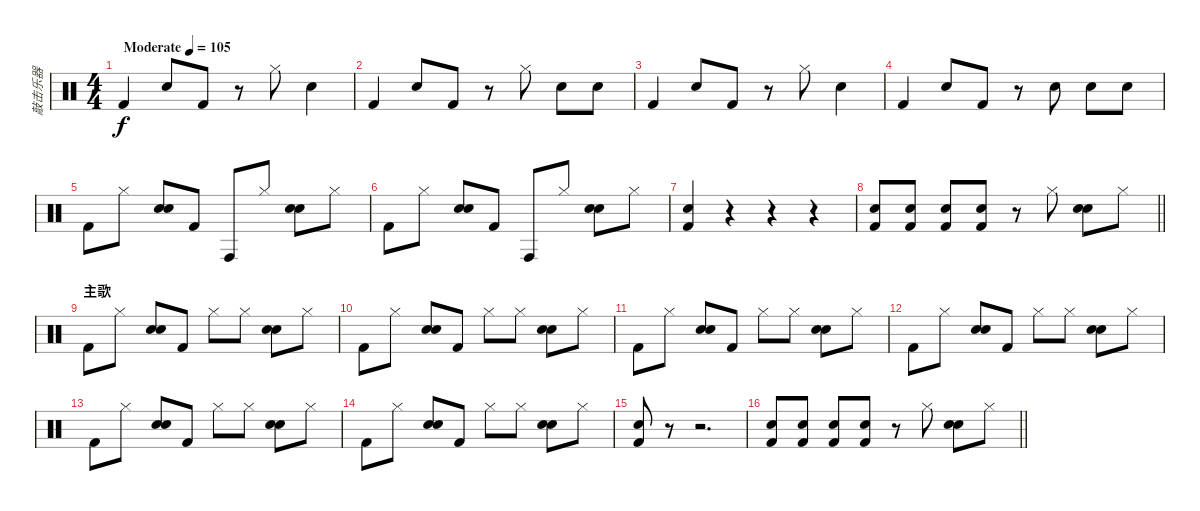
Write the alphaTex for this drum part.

\track ("敲击乐器" "敲击乐器") {instrument percussion}
\staff {score}
\articulation defaults
\ts (4 4)
\tempo (105 "Moderate")
\clef neutral
\ks c "Kick (hit) 2".4{dy f} "Hand Clap (hit)".8 "Kick (hit) 2".8
r.8 "Hi-Hat (closed)".8 "Hand Clap (hit)".4 |
"Kick (hit) 2".4 "Hand Clap (hit)".8 "Kick (hit) 2".8 r.8 "Hi-Hat (closed)".8 "Hand Clap (hit)".8 "Hand Clap (hit)".8 |
"Kick (hit) 2".4 "Hand Clap (hit)".8 "Kick (hit) 2".8 r.8 "Hi-Hat (closed)".8 "Hand Clap (hit)".4 |
"Kick (hit) 2".4 "Hand Clap (hit)".8 "Kick (hit) 2".8 r.8 "Electric Snare (hit)".8 "Electric Snare (hit)".8 "Electric Snare (hit)".8 |
"Kick (hit) 2".8 "Hi-Hat (closed)".8 ("Electric Snare (hit)" "Hand Clap (hit)").8 "Kick (hit) 2".8 "Conga high (hit)".8 "Hi-Hat (closed)".8 ("Electric Snare (hit)" "Hand Clap (hit)").8 "Hi-Hat (closed)".8 |
"Kick (hit) 2".8 "Hi-Hat (closed)".8 ("Electric Snare (hit)" "Hand Clap (hit)").8 "Kick (hit) 2".8 "Conga high (hit)".8 "Hi-Hat (closed)".8 ("Electric Snare (hit)" "Hand Clap (hit)").8 "Hi-Hat (closed)".8 |
("Kick (hit) 2" "Electric Snare (hit)").4 r.4 r.4 r.4 |
\barLineRight lightlight
("Electric Snare (hit)" "Kick (hit) 2").8 ("Kick (hit) 2" "Electric Snare (hit)").8 ("Electric Snare (hit)" "Kick (hit) 2").8 ("Kick (hit) 2" "Electric Snare (hit)").8 r.8 "Hi-Hat (closed)".8 ("Electric Snare (hit)" "Hand Clap (hit)").8 "Hi-Hat (closed)".8 |
\section ("" "主歌")
"Kick (hit) 2".8 "Hi-Hat (closed)".8 ("Electric Snare (hit)" "Hand Clap (hit)").8 "Kick (hit) 2".8 "Hi-Hat (closed)".8 "Hi-Hat (closed)".8 ("Electric Snare (hit)" "Hand Clap (hit)").8 "Hi-Hat (closed)".8 |
"Kick (hit) 2".8 "Hi-Hat (closed)".8 ("Electric Snare (hit)" "Hand Clap (hit)").8 "Kick (hit) 2".8 "Hi-Hat (closed)".8 "Hi-Hat (closed)".8 ("Electric Snare (hit)" "Hand Clap (hit)").8 "Hi-Hat (closed)".8 |
"Kick (hit) 2".8 "Hi-Hat (closed)".8 ("Electric Snare (hit)" "Hand Clap (hit)").8 "Kick (hit) 2".8 "Hi-Hat (closed)".8 "Hi-Hat (closed)".8 ("Electric Snare (hit)" "Hand Clap (hit)").8 "Hi-Hat (closed)".8 |
"Kick (hit) 2".8 "Hi-Hat (closed)".8 ("Electric Snare (hit)" "Hand Clap (hit)").8 "Kick (hit) 2".8 "Hi-Hat (closed)".8 "Hi-Hat (closed)".8 ("Electric Snare (hit)" "Hand Clap (hit)").8 "Hi-Hat (closed)".8 |
"Kick (hit) 2".8 "Hi-Hat (closed)".8 ("Electric Snare (hit)" "Hand Clap (hit)").8 "Kick (hit) 2".8 "Hi-Hat (closed)".8 "Hi-Hat (closed)".8 ("Electric Snare (hit)" "Hand Clap (hit)").8 "Hi-Hat (closed)".8 |
"Kick (hit) 2".8 "Hi-Hat (closed)".8 ("Electric Snare (hit)" "Hand Clap (hit)").8 "Kick (hit) 2".8 "Hi-Hat (closed)".8 "Hi-Hat (closed)".8 ("Electric Snare (hit)" "Hand Clap (hit)").8 "Hi-Hat (closed)".8 |
("Kick (hit) 2" "Electric Snare (hit)").8 r.8 r.2{d} |
\barLineRight lightlight
("Electric Snare (hit)" "Kick (hit) 2").8 ("Kick (hit) 2" "Electric Snare (hit)").8 ("Electric Snare (hit)" "Kick (hit) 2").8 ("Kick (hit) 2" "Electric Snare (hit)").8 r.8 "Hi-Hat (closed)".8 ("Electric Snare (hit)" "Hand Clap (hit)").8 "Hi-Hat (closed)".8
